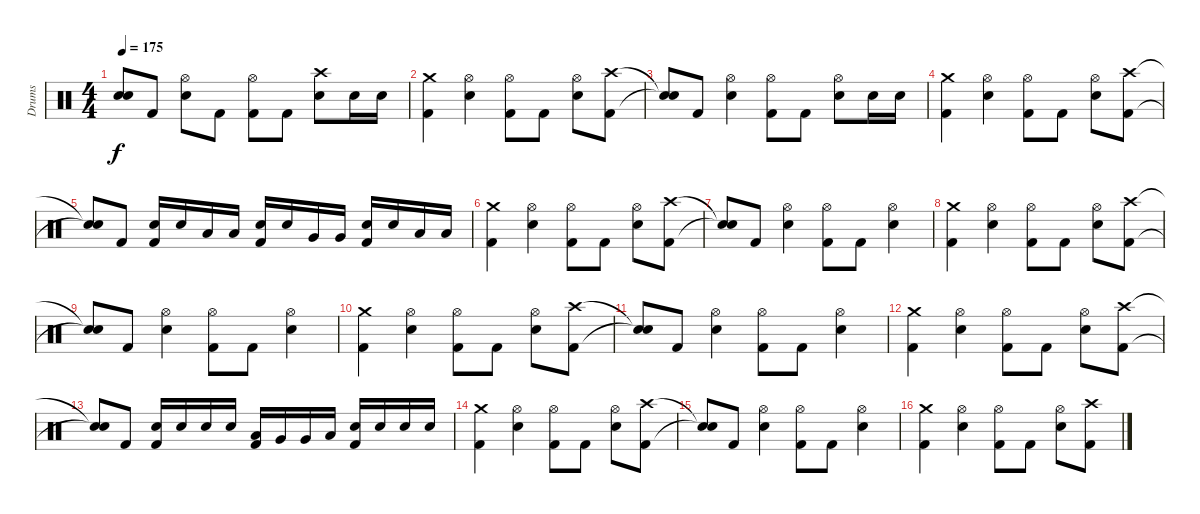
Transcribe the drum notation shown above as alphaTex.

\track ("Drums" "Drums") {instrument percussion}
\staff {score}
\articulation defaults
\ts (4 4)
\tempo 175
\clef neutral
\ks c
("Snare (hit)"{t} "Snare (hit)"{t}).8{dy f} "Kick (hit) 2".8 ("Hi-Hat (open)" "Electric Snare (hit)").8 "Kick (hit) 2".8 ("Hi-Hat (open)" "Kick (hit) 2").8 "Kick (hit) 2".8 ("Crash high (hit)" "Electric Snare (hit)").8 "Electric Snare (hit)".16 "Electric Snare (hit)".16 |
("Crash medium (hit)" "Kick (hit) 2").4 ("Hi-Hat (open)" "Electric Snare (hit)").4 ("Hi-Hat (open)" "Kick (hit) 2").8 "Kick (hit) 2".8 ("Hi-Hat (open)" "Electric Snare (hit)").8 ("Crash high (hit)" "Kick (hit) 2").8 |
("Snare (hit)"{t} "Snare (hit)"{t}).8 "Kick (hit) 2".8 ("Hi-Hat (open)" "Electric Snare (hit)").4 ("Hi-Hat (open)" "Kick (hit) 2").8 "Kick (hit) 2".8 ("Hi-Hat (open)" "Electric Snare (hit)").8 "Electric Snare (hit)".16 "Electric Snare (hit)".16 |
("Crash medium (hit)" "Kick (hit) 2").4 ("Hi-Hat (open)" "Electric Snare (hit)").4 ("Hi-Hat (open)" "Kick (hit) 2").8 "Kick (hit) 2".8 ("Hi-Hat (open)" "Electric Snare (hit)").8 ("Crash high (hit)" "Kick (hit) 2").8 |
("Snare (hit)"{t} "Snare (hit)"{t}).8 "Kick (hit) 2".8 ("Electric Snare (hit)" "Kick (hit) 2").16 "Electric Snare (hit)".16 "Low Tom (hit)".16 "Low Tom (hit)".16 ("Electric Snare (hit)" "Kick (hit) 2").16 "Electric Snare (hit)".16 "Very Low Tom (hit)".16 "Very Low Tom (hit)".16 ("Electric Snare (hit)" "Kick (hit) 2").16 "Electric Snare (hit)".16 "Low Tom (hit)".16 "Low Tom (hit)".16 |
("Crash medium (hit)" "Kick (hit) 2").4 ("Hi-Hat (open)" "Electric Snare (hit)").4 ("Hi-Hat (open)" "Kick (hit) 2").8 "Kick (hit) 2".8 ("Hi-Hat (open)" "Electric Snare (hit)").8 ("Crash high (hit)" "Kick (hit) 2").8 |
("Snare (hit)"{t} "Snare (hit)"{t}).8 "Kick (hit) 2".8 ("Hi-Hat (open)" "Electric Snare (hit)").4 ("Hi-Hat (open)" "Kick (hit) 2").8 "Kick (hit) 2".8 ("Hi-Hat (open)" "Electric Snare (hit)").4 |
("Crash medium (hit)" "Kick (hit) 2").4 ("Hi-Hat (open)" "Electric Snare (hit)").4 ("Hi-Hat (open)" "Kick (hit) 2").8 "Kick (hit) 2".8 ("Hi-Hat (open)" "Electric Snare (hit)").8 ("Crash high (hit)" "Kick (hit) 2").8 |
("Snare (hit)"{t} "Snare (hit)"{t}).8 "Kick (hit) 2".8 ("Hi-Hat (open)" "Electric Snare (hit)").4 ("Hi-Hat (open)" "Kick (hit) 2").8 "Kick (hit) 2".8 ("Hi-Hat (open)" "Electric Snare (hit)").4 |
("Crash medium (hit)" "Kick (hit) 2").4 ("Hi-Hat (open)" "Electric Snare (hit)").4 ("Hi-Hat (open)" "Kick (hit) 2").8 "Kick (hit) 2".8 ("Hi-Hat (open)" "Electric Snare (hit)").8 ("Crash high (hit)" "Kick (hit) 2").8 |
("Snare (hit)"{t} "Snare (hit)"{t}).8 "Kick (hit) 2".8 ("Hi-Hat (open)" "Electric Snare (hit)").4 ("Hi-Hat (open)" "Kick (hit) 2").8 "Kick (hit) 2".8 ("Hi-Hat (open)" "Electric Snare (hit)").4 |
("Crash medium (hit)" "Kick (hit) 2").4 ("Hi-Hat (open)" "Electric Snare (hit)").4 ("Hi-Hat (open)" "Kick (hit) 2").8 "Kick (hit) 2".8 ("Hi-Hat (open)" "Electric Snare (hit)").8 ("Crash high (hit)" "Kick (hit) 2").8 |
("Snare (hit)"{t} "Snare (hit)"{t}).8 "Kick (hit) 2".8 ("Electric Snare (hit)" "Kick (hit) 2").16 "Electric Snare (hit)".16 "Electric Snare (hit)".16 "Electric Snare (hit)".16 ("Low Tom (hit)" "Kick (hit) 2").16 "Very Low Tom (hit)".16 "Very Low Tom (hit)".16 "Low Floor Tom (hit)".16 ("Electric Snare (hit)" "Kick (hit) 2").16 "Electric Snare (hit)".16 "Electric Snare (hit)".16 "Electric Snare (hit)".16 |
("Crash medium (hit)" "Kick (hit) 2").4 ("Hi-Hat (open)" "Electric Snare (hit)").4 ("Hi-Hat (open)" "Kick (hit) 2").8 "Kick (hit) 2".8 ("Hi-Hat (open)" "Electric Snare (hit)").8 ("Crash high (hit)" "Kick (hit) 2").8 |
("Snare (hit)"{t} "Snare (hit)"{t}).8 "Kick (hit) 2".8 ("Hi-Hat (open)" "Electric Snare (hit)").4 ("Hi-Hat (open)" "Kick (hit) 2").8 "Kick (hit) 2".8 ("Hi-Hat (open)" "Electric Snare (hit)").4 |
("Crash medium (hit)" "Kick (hit) 2").4 ("Hi-Hat (open)" "Electric Snare (hit)").4 ("Hi-Hat (open)" "Kick (hit) 2").8 "Kick (hit) 2".8 ("Hi-Hat (open)" "Electric Snare (hit)").8 ("Crash high (hit)" "Kick (hit) 2").8
